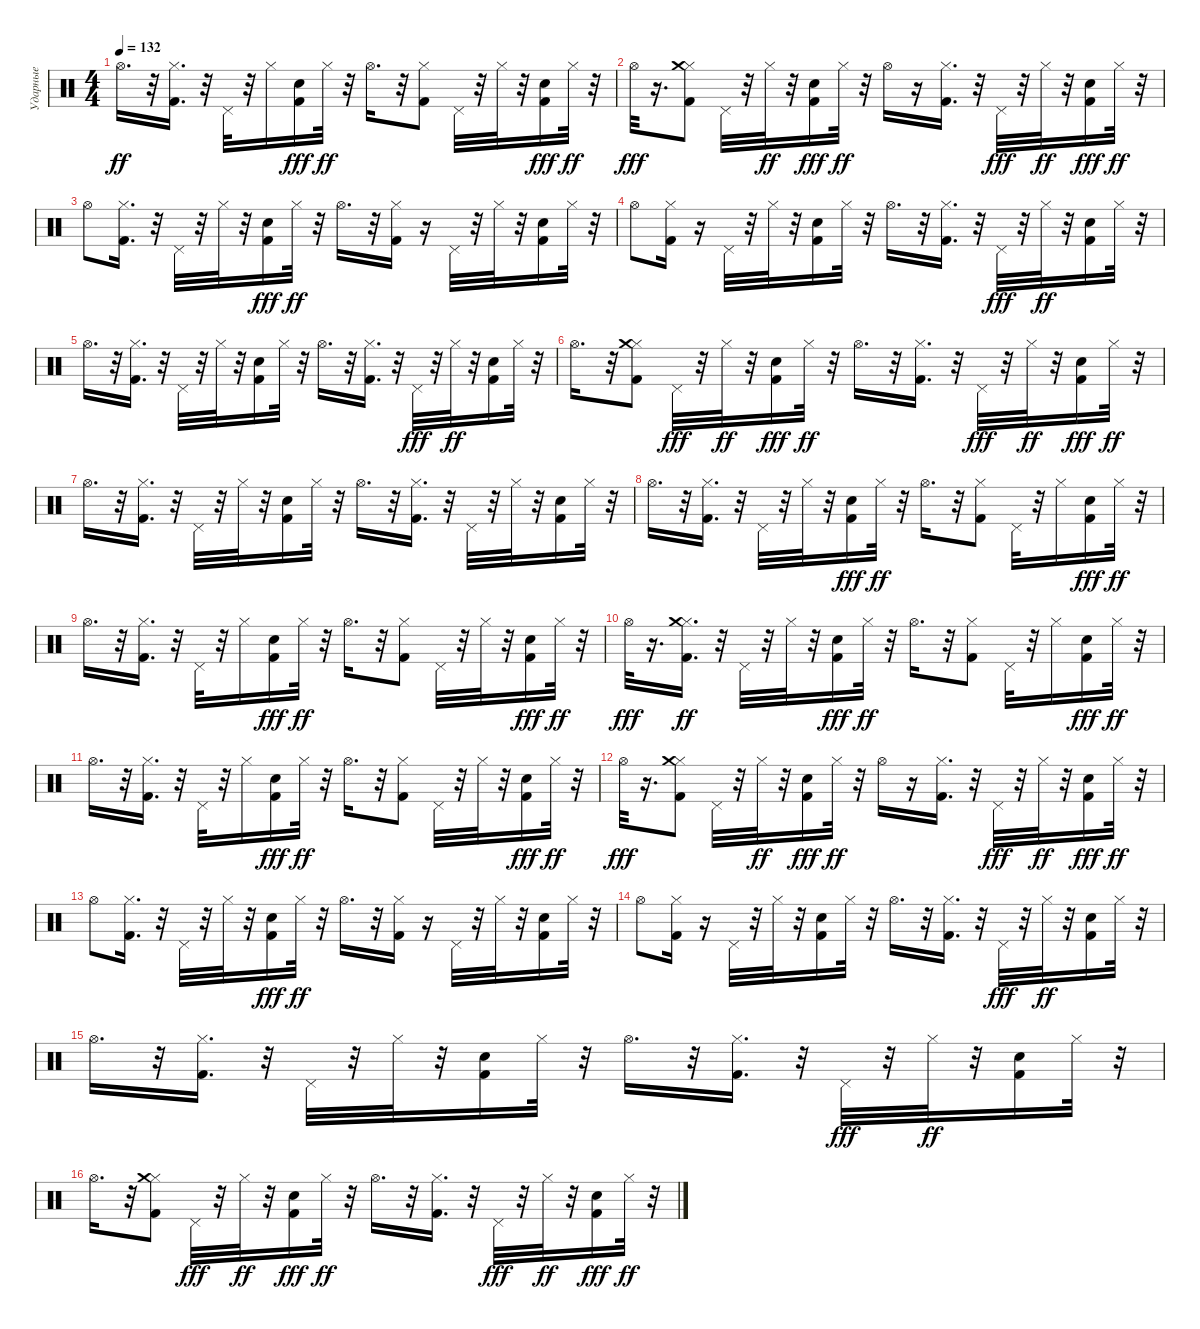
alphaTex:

\track ("Ударные" "Ударные") {instrument percussion}
\staff {score}
\articulation defaults
\ts (4 4)
\tempo 132
\clef neutral
\ks c "Hi-Hat (open)".16{d dy ff}
r.32 ("Kick (hit) 2" "Hi-Hat (closed)").16{d} r.32 "Pedal Hi-Hat (hit)".32 r.32 "Hi-Hat (closed)".16 ("Kick (hit) 2" "Snare (hit) 2").16{dy fff} "Hi-Hat (closed)".32{dy ff} r.32 "Hi-Hat (open)".16{d} r.32 ("Kick (hit) 2" "Hi-Hat (closed)").8 "Pedal Hi-Hat (hit)".32 r.32 "Hi-Hat (closed)".32 r.32 ("Kick (hit) 2" "Snare (hit) 2").16{dy fff} "Hi-Hat (closed)".32{dy ff} r.32 |
"Hi-Hat (open)".32{dy fff} r.16{d} ("Kick (hit) 2" "Hi-Hat (closed)" "Crash medium (hit)").8 "Pedal Hi-Hat (hit)".32 r.32 "Hi-Hat (closed)".32{dy ff} r.32 ("Kick (hit) 2" "Snare (hit) 2").16{dy fff} "Hi-Hat (closed)".32{dy ff} r.32 "Hi-Hat (open)".16 r.16 ("Kick (hit) 2" "Hi-Hat (closed)").16{d} r.32 "Pedal Hi-Hat (hit)".32{dy fff} r.32 "Hi-Hat (closed)".32{dy ff} r.32 ("Kick (hit) 2" "Snare (hit) 2").16{dy fff} "Hi-Hat (closed)".32{dy ff} r.32 |
"Hi-Hat (open)".8 ("Kick (hit) 2" "Hi-Hat (closed)").16{d} r.32 "Pedal Hi-Hat (hit)".32 r.32 "Hi-Hat (closed)".32 r.32 ("Kick (hit) 2" "Snare (hit) 2").16{dy fff} "Hi-Hat (closed)".32{dy ff} r.32 "Hi-Hat (open)".16{d} r.32 ("Kick (hit) 2" "Hi-Hat (closed)").16 r.16 "Pedal Hi-Hat (hit)".32 r.32 "Hi-Hat (closed)".32 r.32 ("Kick (hit) 2" "Snare (hit) 2").16 "Hi-Hat (closed)".32 r.32 |
"Hi-Hat (open)".8 ("Kick (hit) 2" "Hi-Hat (closed)").16 r.16 "Pedal Hi-Hat (hit)".32 r.32 "Hi-Hat (closed)".32 r.32 ("Kick (hit) 2" "Snare (hit) 2").16 "Hi-Hat (closed)".32 r.32 "Hi-Hat (open)".16{d} r.32 ("Kick (hit) 2" "Hi-Hat (closed)").16{d} r.32 "Pedal Hi-Hat (hit)".32{dy fff} r.32 "Hi-Hat (closed)".32{dy ff} r.32 ("Kick (hit) 2" "Snare (hit) 2").16 "Hi-Hat (closed)".32 r.32 |
"Hi-Hat (open)".16{d} r.32 ("Kick (hit) 2" "Hi-Hat (closed)").16{d} r.32 "Pedal Hi-Hat (hit)".32 r.32 "Hi-Hat (closed)".32 r.32 ("Kick (hit) 2" "Snare (hit) 2").16 "Hi-Hat (closed)".32 r.32 "Hi-Hat (open)".16{d} r.32 ("Kick (hit) 2" "Hi-Hat (closed)").16{d} r.32 "Pedal Hi-Hat (hit)".32{dy fff} r.32 "Hi-Hat (closed)".32{dy ff} r.32 ("Kick (hit) 2" "Snare (hit) 2").16 "Hi-Hat (closed)".32 r.32 |
"Hi-Hat (open)".16{d} r.32 ("Kick (hit) 2" "Hi-Hat (closed)" "Crash medium (hit)").8 "Pedal Hi-Hat (hit)".32{dy fff} r.32 "Hi-Hat (closed)".32{dy ff} r.32 ("Kick (hit) 2" "Snare (hit) 2").16{dy fff} "Hi-Hat (closed)".32{dy ff} r.32 "Hi-Hat (open)".16{d} r.32 ("Kick (hit) 2" "Hi-Hat (closed)").16{d} r.32 "Pedal Hi-Hat (hit)".32{dy fff} r.32 "Hi-Hat (closed)".32{dy ff} r.32 ("Kick (hit) 2" "Snare (hit) 2").16{dy fff} "Hi-Hat (closed)".32{dy ff} r.32 |
"Hi-Hat (open)".16{d} r.32 ("Kick (hit) 2" "Hi-Hat (closed)").16{d} r.32 "Pedal Hi-Hat (hit)".32 r.32 "Hi-Hat (closed)".32 r.32 ("Kick (hit) 2" "Snare (hit) 2").16 "Hi-Hat (closed)".32 r.32 "Hi-Hat (open)".16{d} r.32 ("Kick (hit) 2" "Hi-Hat (closed)").16{d} r.32 "Pedal Hi-Hat (hit)".32 r.32 "Hi-Hat (closed)".32 r.32 ("Kick (hit) 2" "Snare (hit) 2").16 "Hi-Hat (closed)".32 r.32 |
"Hi-Hat (open)".16{d} r.32 ("Kick (hit) 2" "Hi-Hat (closed)").16{d} r.32 "Pedal Hi-Hat (hit)".32 r.32 "Hi-Hat (closed)".32 r.32 ("Kick (hit) 2" "Snare (hit) 2").16{dy fff} "Hi-Hat (closed)".32{dy ff} r.32 "Hi-Hat (open)".16{d} r.32 ("Kick (hit) 2" "Hi-Hat (closed)").8 "Pedal Hi-Hat (hit)".32 r.32 "Hi-Hat (closed)".16 ("Kick (hit) 2" "Snare (hit) 2").16{dy fff} "Hi-Hat (closed)".32{dy ff} r.32 |
"Hi-Hat (open)".16{d} r.32 ("Kick (hit) 2" "Hi-Hat (closed)").16{d} r.32 "Pedal Hi-Hat (hit)".32 r.32 "Hi-Hat (closed)".16 ("Kick (hit) 2" "Snare (hit) 2").16{dy fff} "Hi-Hat (closed)".32{dy ff} r.32 "Hi-Hat (open)".16{d} r.32 ("Kick (hit) 2" "Hi-Hat (closed)").8 "Pedal Hi-Hat (hit)".32 r.32 "Hi-Hat (closed)".32 r.32 ("Kick (hit) 2" "Snare (hit) 2").16{dy fff} "Hi-Hat (closed)".32{dy ff} r.32 |
"Hi-Hat (open)".32{dy fff} r.16{d} ("Kick (hit) 2" "Hi-Hat (closed)" "Crash medium (hit)").16{d dy ff} r.32 "Pedal Hi-Hat (hit)".32 r.32 "Hi-Hat (closed)".32 r.32 ("Kick (hit) 2" "Snare (hit) 2").16{dy fff} "Hi-Hat (closed)".32{dy ff} r.32 "Hi-Hat (open)".16{d} r.32 ("Kick (hit) 2" "Hi-Hat (closed)").8 "Pedal Hi-Hat (hit)".32 r.32 "Hi-Hat (closed)".16 ("Kick (hit) 2" "Snare (hit) 2").16{dy fff} "Hi-Hat (closed)".32{dy ff} r.32 |
"Hi-Hat (open)".16{d} r.32 ("Kick (hit) 2" "Hi-Hat (closed)").16{d} r.32 "Pedal Hi-Hat (hit)".32 r.32 "Hi-Hat (closed)".16 ("Kick (hit) 2" "Snare (hit) 2").16{dy fff} "Hi-Hat (closed)".32{dy ff} r.32 "Hi-Hat (open)".16{d} r.32 ("Kick (hit) 2" "Hi-Hat (closed)").8 "Pedal Hi-Hat (hit)".32 r.32 "Hi-Hat (closed)".32 r.32 ("Kick (hit) 2" "Snare (hit) 2").16{dy fff} "Hi-Hat (closed)".32{dy ff} r.32 |
"Hi-Hat (open)".32{dy fff} r.16{d} ("Kick (hit) 2" "Hi-Hat (closed)" "Crash medium (hit)").8 "Pedal Hi-Hat (hit)".32 r.32 "Hi-Hat (closed)".32{dy ff} r.32 ("Kick (hit) 2" "Snare (hit) 2").16{dy fff} "Hi-Hat (closed)".32{dy ff} r.32 "Hi-Hat (open)".16 r.16 ("Kick (hit) 2" "Hi-Hat (closed)").16{d} r.32 "Pedal Hi-Hat (hit)".32{dy fff} r.32 "Hi-Hat (closed)".32{dy ff} r.32 ("Kick (hit) 2" "Snare (hit) 2").16{dy fff} "Hi-Hat (closed)".32{dy ff} r.32 |
"Hi-Hat (open)".8 ("Kick (hit) 2" "Hi-Hat (closed)").16{d} r.32 "Pedal Hi-Hat (hit)".32 r.32 "Hi-Hat (closed)".32 r.32 ("Kick (hit) 2" "Snare (hit) 2").16{dy fff} "Hi-Hat (closed)".32{dy ff} r.32 "Hi-Hat (open)".16{d} r.32 ("Kick (hit) 2" "Hi-Hat (closed)").16 r.16 "Pedal Hi-Hat (hit)".32 r.32 "Hi-Hat (closed)".32 r.32 ("Kick (hit) 2" "Snare (hit) 2").16 "Hi-Hat (closed)".32 r.32 |
"Hi-Hat (open)".8 ("Kick (hit) 2" "Hi-Hat (closed)").16 r.16 "Pedal Hi-Hat (hit)".32 r.32 "Hi-Hat (closed)".32 r.32 ("Kick (hit) 2" "Snare (hit) 2").16 "Hi-Hat (closed)".32 r.32 "Hi-Hat (open)".16{d} r.32 ("Kick (hit) 2" "Hi-Hat (closed)").16{d} r.32 "Pedal Hi-Hat (hit)".32{dy fff} r.32 "Hi-Hat (closed)".32{dy ff} r.32 ("Kick (hit) 2" "Snare (hit) 2").16 "Hi-Hat (closed)".32 r.32 |
"Hi-Hat (open)".16{d} r.32 ("Kick (hit) 2" "Hi-Hat (closed)").16{d} r.32 "Pedal Hi-Hat (hit)".32 r.32 "Hi-Hat (closed)".32 r.32 ("Kick (hit) 2" "Snare (hit) 2").16 "Hi-Hat (closed)".32 r.32 "Hi-Hat (open)".16{d} r.32 ("Kick (hit) 2" "Hi-Hat (closed)").16{d} r.32 "Pedal Hi-Hat (hit)".32{dy fff} r.32 "Hi-Hat (closed)".32{dy ff} r.32 ("Kick (hit) 2" "Snare (hit) 2").16 "Hi-Hat (closed)".32 r.32 |
"Hi-Hat (open)".16{d} r.32 ("Kick (hit) 2" "Hi-Hat (closed)" "Crash medium (hit)").8 "Pedal Hi-Hat (hit)".32{dy fff} r.32 "Hi-Hat (closed)".32{dy ff} r.32 ("Kick (hit) 2" "Snare (hit) 2").16{dy fff} "Hi-Hat (closed)".32{dy ff} r.32 "Hi-Hat (open)".16{d} r.32 ("Kick (hit) 2" "Hi-Hat (closed)").16{d} r.32 "Pedal Hi-Hat (hit)".32{dy fff} r.32 "Hi-Hat (closed)".32{dy ff} r.32 ("Kick (hit) 2" "Snare (hit) 2").16{dy fff} "Hi-Hat (closed)".32{dy ff} r.32
